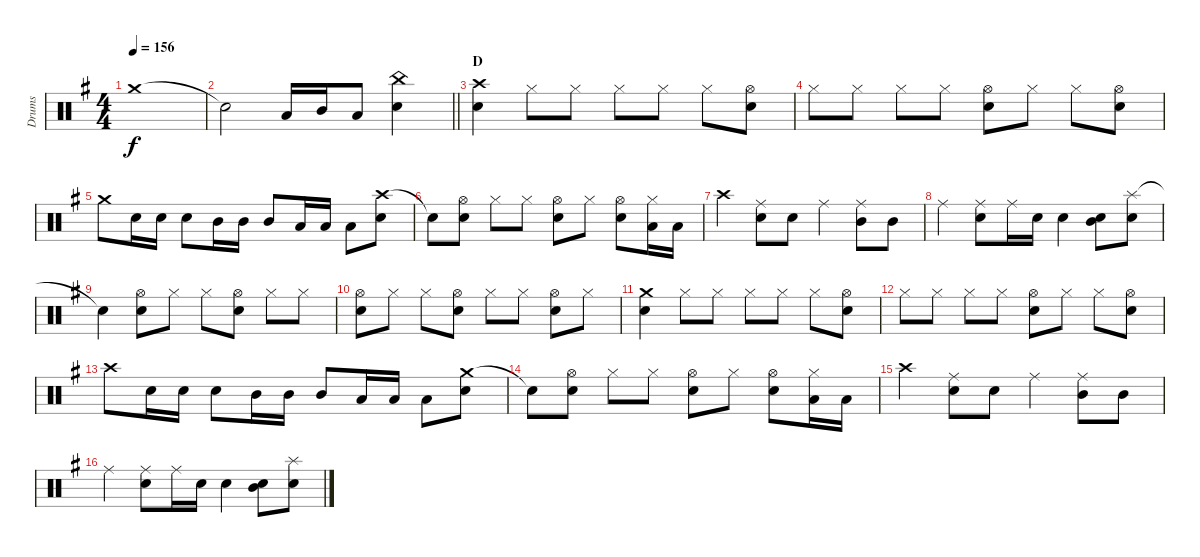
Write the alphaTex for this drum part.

\track ("Drums" "Drums") {instrument percussion}
\staff {score}
\articulation defaults
\ts (4 4)
\tempo 156
\clef neutral
\ks g "Crash medium (hit)".1{dy f}
|
\barLineRight lightlight "Snare (hit)"{t}.2 "Low Tom (hit)".16 "Mid Tom (hit)".16 "Low Tom (hit)".8
("China (hit)" "Snare (hit) 2").4 |
\section ("" "D")
("Crash high (hit)" "Snare (hit) 2").4 "Hi-Hat (closed)".8 "Hi-Hat (closed)".8 "Hi-Hat (closed)".8 "Hi-Hat (closed)".8 "Hi-Hat (closed)".8 ("Hi-Hat (open)" "Snare (hit) 2").8 |
"Hi-Hat (closed)".8 "Hi-Hat (closed)".8 "Hi-Hat (closed)".8 "Hi-Hat (closed)".8 ("Hi-Hat (open)" "Snare (hit) 2").8 "Hi-Hat (closed)".8 "Hi-Hat (closed)".8 ("Hi-Hat (open)" "Snare (hit) 2").8 |
"Crash medium (hit)".8 "Snare (hit) 2".16 "Snare (hit) 2".16 "Snare (hit) 2".8 "Mid Tom (hit)".16 "Mid Tom (hit)".16 "Mid Tom (hit)".8 "Low Tom (hit)".16 "Low Tom (hit)".16 "Low Tom (hit)".8 ("Crash high (hit)" "Snare (hit) 2").8 |
"Snare (hit)"{t}.8 ("Hi-Hat (open)" "Snare (hit) 2").8 "Hi-Hat (closed)".8 "Hi-Hat (closed)".8 ("Hi-Hat (open)" "Snare (hit) 2").8 "Hi-Hat (closed)".8 ("Hi-Hat (open)" "Snare (hit) 2").8 ("Hi-Hat (closed)" "Low Tom (hit)").16 "Low Tom (hit)".16 |
"Crash high (hit)".4 ("Ride (middle)" "Snare (hit) 2").8 "Snare (hit) 2".8 "Ride (middle)".4 ("Ride (middle)" "Mid Tom (hit)").8 "Mid Tom (hit)".8 |
"Ride (middle)".4 ("Ride (middle)" "Snare (hit) 2").8 "Ride (middle)".16 "Snare (hit) 2".16 "Snare (hit) 2".4 ("Mid Tom (hit)" "Snare (hit) 2").8 ("Splash (hit)" "Snare (hit) 2").8 |
"Snare (hit)"{t}.4 ("Hi-Hat (open)" "Snare (hit) 2").8 "Hi-Hat (closed)".8 "Hi-Hat (closed)".8 ("Hi-Hat (open)" "Snare (hit) 2").8 "Hi-Hat (closed)".8 "Hi-Hat (closed)".8 |
("Hi-Hat (open)" "Snare (hit) 2").8 "Hi-Hat (closed)".8 "Hi-Hat (closed)".8 ("Hi-Hat (open)" "Snare (hit) 2").8 "Hi-Hat (closed)".8 "Hi-Hat (closed)".8 ("Hi-Hat (open)" "Snare (hit) 2").8 "Hi-Hat (closed)".8 |
("Crash medium (hit)" "Snare (hit) 2").4 "Hi-Hat (closed)".8 "Hi-Hat (closed)".8 "Hi-Hat (closed)".8 "Hi-Hat (closed)".8 "Hi-Hat (closed)".8 ("Hi-Hat (open)" "Snare (hit) 2").8 |
"Hi-Hat (closed)".8 "Hi-Hat (closed)".8 "Hi-Hat (closed)".8 "Hi-Hat (closed)".8 ("Hi-Hat (open)" "Snare (hit) 2").8 "Hi-Hat (closed)".8 "Hi-Hat (closed)".8 ("Hi-Hat (open)" "Snare (hit) 2").8 |
"Crash high (hit)".8 "Snare (hit) 2".16 "Snare (hit) 2".16 "Snare (hit) 2".8 "Mid Tom (hit)".16 "Mid Tom (hit)".16 "Mid Tom (hit)".8 "Low Tom (hit)".16 "Low Tom (hit)".16 "Low Tom (hit)".8 ("Crash medium (hit)" "Snare (hit) 2").8 |
"Snare (hit)"{t}.8 ("Hi-Hat (open)" "Snare (hit) 2").8 "Hi-Hat (closed)".8 "Hi-Hat (closed)".8 ("Hi-Hat (open)" "Snare (hit) 2").8 "Hi-Hat (closed)".8 ("Hi-Hat (open)" "Snare (hit) 2").8 ("Hi-Hat (closed)" "Low Tom (hit)").16 "Low Tom (hit)".16 |
"Crash high (hit)".4 ("Ride (middle)" "Snare (hit) 2").8 "Snare (hit) 2".8 "Ride (middle)".4 ("Ride (middle)" "Mid Tom (hit)").8 "Mid Tom (hit)".8 |
"Ride (middle)".4 ("Ride (middle)" "Snare (hit) 2").8 "Ride (middle)".16 "Snare (hit) 2".16 "Snare (hit) 2".4 ("Mid Tom (hit)" "Snare (hit) 2").8 ("Splash (hit)" "Snare (hit) 2").8
